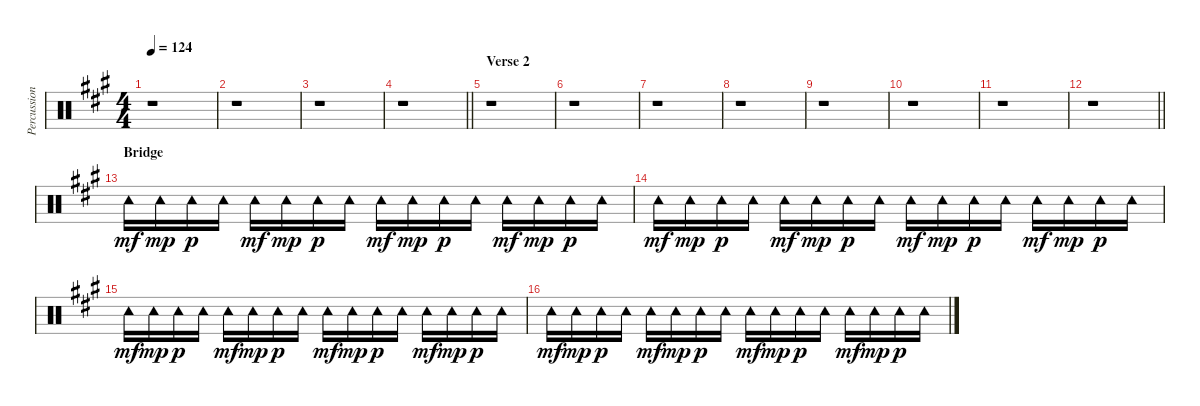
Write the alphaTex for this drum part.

\track ("Percussion" "Percussion") {instrument percussion}
\staff {score}
\articulation defaults
\ts (4 4)
\tempo 124
\clef neutral
\ks a
r.1{dy mf} |
r.1 |
r.1 |
\barLineRight lightlight
r.1 |
\section ("" "Verse 2")
r.1 |
r.1 |
r.1 |
r.1 |
r.1 |
r.1 |
r.1 |
\barLineRight lightlight
r.1 |
\section ("" "Bridge")
"Tambourine (hit)".16 "Tambourine (hit)".16{dy mp} "Tambourine (hit)".16{dy p} "Tambourine (hit)".16 "Tambourine (hit)".16{dy mf} "Tambourine (hit)".16{dy mp} "Tambourine (hit)".16{dy p} "Tambourine (hit)".16 "Tambourine (hit)".16{dy mf} "Tambourine (hit)".16{dy mp} "Tambourine (hit)".16{dy p} "Tambourine (hit)".16 "Tambourine (hit)".16{dy mf} "Tambourine (hit)".16{dy mp} "Tambourine (hit)".16{dy p} "Tambourine (hit)".16 |
"Tambourine (hit)".16{dy mf} "Tambourine (hit)".16{dy mp} "Tambourine (hit)".16{dy p} "Tambourine (hit)".16 "Tambourine (hit)".16{dy mf} "Tambourine (hit)".16{dy mp} "Tambourine (hit)".16{dy p} "Tambourine (hit)".16 "Tambourine (hit)".16{dy mf} "Tambourine (hit)".16{dy mp} "Tambourine (hit)".16{dy p} "Tambourine (hit)".16 "Tambourine (hit)".16{dy mf} "Tambourine (hit)".16{dy mp} "Tambourine (hit)".16{dy p} "Tambourine (hit)".16 |
"Tambourine (hit)".16{dy mf} "Tambourine (hit)".16{dy mp} "Tambourine (hit)".16{dy p} "Tambourine (hit)".16 "Tambourine (hit)".16{dy mf} "Tambourine (hit)".16{dy mp} "Tambourine (hit)".16{dy p} "Tambourine (hit)".16 "Tambourine (hit)".16{dy mf} "Tambourine (hit)".16{dy mp} "Tambourine (hit)".16{dy p} "Tambourine (hit)".16 "Tambourine (hit)".16{dy mf} "Tambourine (hit)".16{dy mp} "Tambourine (hit)".16{dy p} "Tambourine (hit)".16 |
"Tambourine (hit)".16{dy mf} "Tambourine (hit)".16{dy mp} "Tambourine (hit)".16{dy p} "Tambourine (hit)".16 "Tambourine (hit)".16{dy mf} "Tambourine (hit)".16{dy mp} "Tambourine (hit)".16{dy p} "Tambourine (hit)".16 "Tambourine (hit)".16{dy mf} "Tambourine (hit)".16{dy mp} "Tambourine (hit)".16{dy p} "Tambourine (hit)".16 "Tambourine (hit)".16{dy mf} "Tambourine (hit)".16{dy mp} "Tambourine (hit)".16{dy p} "Tambourine (hit)".16
